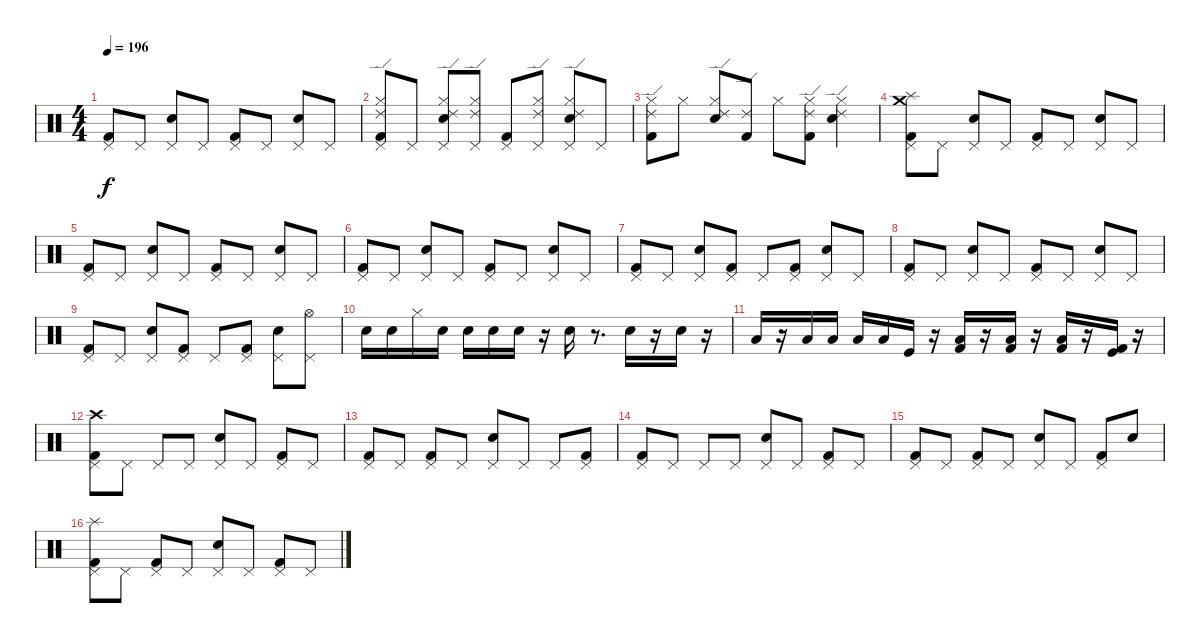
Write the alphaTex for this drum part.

\track "" {instrument percussion}
\staff {score}
\articulation defaults
\ts (4 4)
\tempo 196
\clef neutral
\ks c
("Pedal Hi-Hat (hit)" "Kick (hit) 2").8{dy f} "Pedal Hi-Hat (hit)".8 ("Electric Snare (hit)" "Pedal Hi-Hat (hit)").8 "Pedal Hi-Hat (hit)".8 ("Kick (hit) 2" "Pedal Hi-Hat (hit)").8 "Pedal Hi-Hat (hit)".8 ("Pedal Hi-Hat (hit)" "Electric Snare (hit)").8 "Pedal Hi-Hat (hit)".8 |
("Pedal Hi-Hat (hit)" "Hi-Hat (closed)" "Ride (edge) 2" "Kick (hit) 2").8 "Pedal Hi-Hat (hit)".8 ("Hi-Hat (closed)" "Ride (edge) 2" "Electric Snare (hit)" "Pedal Hi-Hat (hit)").8 ("Hi-Hat (closed)" "Ride (edge) 2" "Pedal Hi-Hat (hit)").8 ("Kick (hit) 2" "Pedal Hi-Hat (hit)").8 ("Hi-Hat (closed)" "Ride (edge) 2" "Pedal Hi-Hat (hit)").8 ("Hi-Hat (closed)" "Ride (edge) 2" "Electric Snare (hit)" "Pedal Hi-Hat (hit)").8 "Pedal Hi-Hat (hit)".8 |
("Hi-Hat (closed)" "Ride (edge) 2" "Kick (hit) 2").8 "Hi-Hat (closed)".8 ("Hi-Hat (closed)" "Ride (edge) 2" "Electric Snare (hit)").8 ("Kick (hit) 2" "Ride (edge) 2").8 "Hi-Hat (closed)".8 ("Ride (edge) 2" "Kick (hit) 2" "Hi-Hat (closed)").8 ("Hi-Hat (closed)" "Ride (edge) 2" "Electric Snare (hit)").4 |
("Pedal Hi-Hat (hit)" "Splash (hit)" "Crash medium (hit)" "Kick (hit) 2").8 "Pedal Hi-Hat (hit)".8 ("Electric Snare (hit)" "Pedal Hi-Hat (hit)").8 "Pedal Hi-Hat (hit)".8 ("Kick (hit) 2" "Pedal Hi-Hat (hit)").8 "Pedal Hi-Hat (hit)".8 ("Electric Snare (hit)" "Pedal Hi-Hat (hit)").8 "Pedal Hi-Hat (hit)".8 |
("Pedal Hi-Hat (hit)" "Kick (hit) 2").8 "Pedal Hi-Hat (hit)".8 ("Electric Snare (hit)" "Pedal Hi-Hat (hit)").8 "Pedal Hi-Hat (hit)".8 ("Kick (hit) 2" "Pedal Hi-Hat (hit)").8 "Pedal Hi-Hat (hit)".8 ("Pedal Hi-Hat (hit)" "Electric Snare (hit)").8 "Pedal Hi-Hat (hit)".8 |
("Pedal Hi-Hat (hit)" "Kick (hit) 2").8 "Pedal Hi-Hat (hit)".8 ("Electric Snare (hit)" "Pedal Hi-Hat (hit)").8 "Pedal Hi-Hat (hit)".8 ("Kick (hit) 2" "Pedal Hi-Hat (hit)").8 "Pedal Hi-Hat (hit)".8 ("Pedal Hi-Hat (hit)" "Electric Snare (hit)").8 "Pedal Hi-Hat (hit)".8 |
("Pedal Hi-Hat (hit)" "Kick (hit) 2").8 "Pedal Hi-Hat (hit)".8 ("Electric Snare (hit)" "Pedal Hi-Hat (hit)").8 ("Kick (hit) 2" "Pedal Hi-Hat (hit)").8 "Pedal Hi-Hat (hit)".8 ("Kick (hit) 2" "Pedal Hi-Hat (hit)").8 ("Pedal Hi-Hat (hit)" "Electric Snare (hit)").8 "Pedal Hi-Hat (hit)".8 |
("Pedal Hi-Hat (hit)" "Kick (hit) 2").8 "Pedal Hi-Hat (hit)".8 ("Electric Snare (hit)" "Pedal Hi-Hat (hit)").8 "Pedal Hi-Hat (hit)".8 ("Kick (hit) 2" "Pedal Hi-Hat (hit)").8 "Pedal Hi-Hat (hit)".8 ("Pedal Hi-Hat (hit)" "Electric Snare (hit)").8 "Pedal Hi-Hat (hit)".8 |
("Pedal Hi-Hat (hit)" "Kick (hit) 2").8 "Pedal Hi-Hat (hit)".8 ("Electric Snare (hit)" "Pedal Hi-Hat (hit)").8 ("Kick (hit) 2" "Pedal Hi-Hat (hit)").8 "Pedal Hi-Hat (hit)".8 ("Kick (hit) 2" "Pedal Hi-Hat (hit)").8 ("Pedal Hi-Hat (hit)" "Electric Snare (hit)").8 ("Pedal Hi-Hat (hit)" "Hi-Hat (open)").8 |
"Electric Snare (hit)".16 "Electric Snare (hit)".16 "Hi-Hat (closed)".16 "Electric Snare (hit)".16 "Electric Snare (hit)".16 "Electric Snare (hit)".16 "Electric Snare (hit)".16 r.16 "Electric Snare (hit)".16 r.8{d} "Electric Snare (hit)".16 r.16 "Electric Snare (hit)".16 r.16 |
"Low Tom (hit)".16 r.16 "Low Tom (hit)".16 "Low Tom (hit)".16 "Low Tom (hit)".16 "Low Tom (hit)".16 "Kick (hit)".16 r.16 ("Low Floor Tom (hit)" "Kick (hit) 2").16 r.16 ("Low Floor Tom (hit)" "Kick (hit) 2").16 r.16 ("Low Floor Tom (hit)" "Kick (hit) 2").16 r.16 ("Kick (hit)" "Kick (hit) 2").16 r.16 |
("Pedal Hi-Hat (hit)" "Crash high (hit)" "Kick (hit) 2").8 "Pedal Hi-Hat (hit)".8 "Pedal Hi-Hat (hit)".8 "Pedal Hi-Hat (hit)".8 ("Pedal Hi-Hat (hit)" "Electric Snare (hit)").8 "Pedal Hi-Hat (hit)".8 ("Pedal Hi-Hat (hit)" "Kick (hit) 2").8 "Pedal Hi-Hat (hit)".8 |
("Pedal Hi-Hat (hit)" "Kick (hit) 2").8 "Pedal Hi-Hat (hit)".8 ("Pedal Hi-Hat (hit)" "Kick (hit) 2").8 "Pedal Hi-Hat (hit)".8 ("Pedal Hi-Hat (hit)" "Electric Snare (hit)").8 "Pedal Hi-Hat (hit)".8 "Pedal Hi-Hat (hit)".8 ("Pedal Hi-Hat (hit)" "Kick (hit) 2").8 |
("Pedal Hi-Hat (hit)" "Kick (hit) 2").8 "Pedal Hi-Hat (hit)".8 "Pedal Hi-Hat (hit)".8 "Pedal Hi-Hat (hit)".8 ("Pedal Hi-Hat (hit)" "Electric Snare (hit)").8 "Pedal Hi-Hat (hit)".8 ("Pedal Hi-Hat (hit)" "Kick (hit) 2").8 "Pedal Hi-Hat (hit)".8 |
("Pedal Hi-Hat (hit)" "Kick (hit) 2").8 "Pedal Hi-Hat (hit)".8 ("Pedal Hi-Hat (hit)" "Kick (hit) 2").8 "Pedal Hi-Hat (hit)".8 ("Pedal Hi-Hat (hit)" "Electric Snare (hit)").8 "Pedal Hi-Hat (hit)".8 ("Pedal Hi-Hat (hit)" "Kick (hit) 2").8 "Electric Snare (hit)".8 |
("Pedal Hi-Hat (hit)" "Splash (hit)" "Kick (hit) 2").8 "Pedal Hi-Hat (hit)".8 ("Pedal Hi-Hat (hit)" "Kick (hit) 2").8 "Pedal Hi-Hat (hit)".8 ("Pedal Hi-Hat (hit)" "Electric Snare (hit)").8 "Pedal Hi-Hat (hit)".8 ("Pedal Hi-Hat (hit)" "Kick (hit) 2").8 "Pedal Hi-Hat (hit)".8
